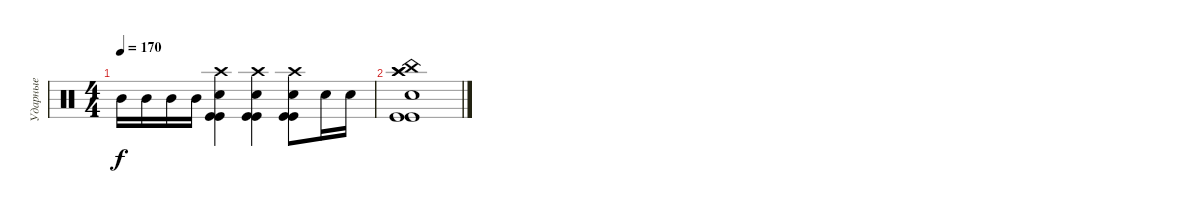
\track ("Ударные" "Ударные") {instrument percussion}
\staff {score}
\articulation defaults
\ts (4 4)
\tempo 170
\clef neutral
\ks c "Mid Tom (hit)".16{dy f} "Mid Tom (hit)".16 "Mid Tom (hit)".16 "Mid Tom (hit)".16
("Crash high (hit)" "Electric Snare (hit)" "Kick (hit)" "Kick (hit)").4 ("Crash high (hit)" "Electric Snare (hit)" "Kick (hit)" "Kick (hit)").4 ("Crash high (hit)" "Electric Snare (hit)" "Kick (hit)" "Kick (hit)").8 "Electric Snare (hit)".16 "Electric Snare (hit)".16 |
("Crash high (hit)" "Electric Snare (hit)" "China (hit)" "Crash high (hit)" "Kick (hit)" "Kick (hit)").1
